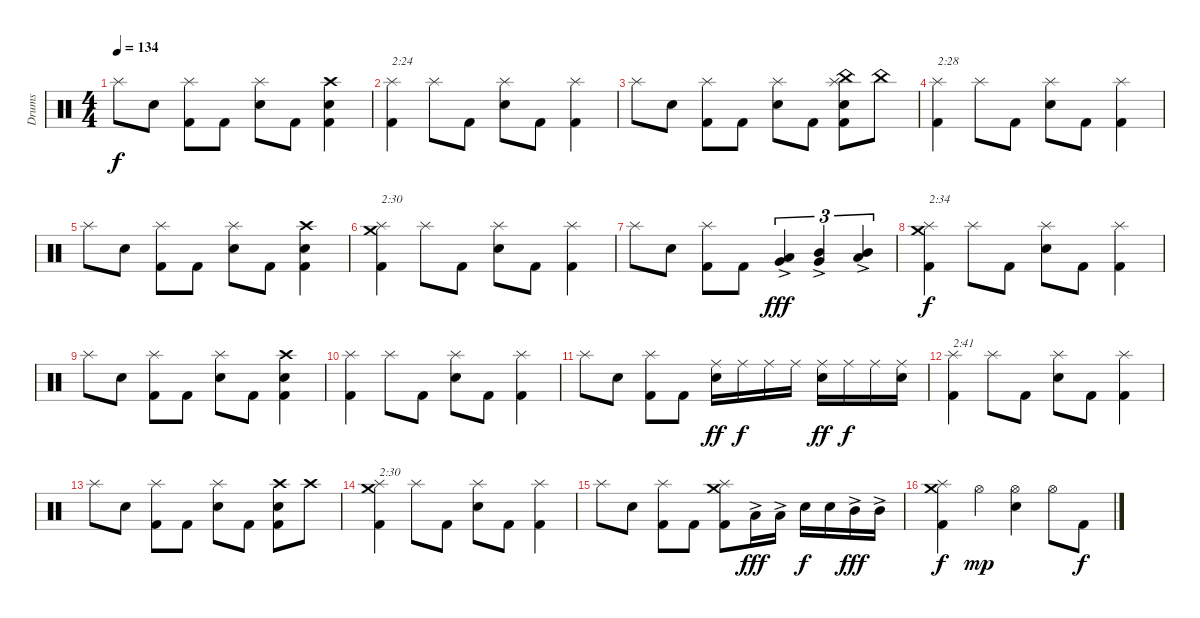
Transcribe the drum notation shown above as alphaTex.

\track ("Drums" "Drums") {instrument percussion}
\staff {score}
\articulation defaults
\ts (4 4)
\tempo 134
\clef neutral
\ks c "Splash (hit)".8{dy f} "Electric Snare (hit)".8
("Kick (hit) 2" "Splash (hit)").8 "Kick (hit) 2".8 ("Electric Snare (hit)" "Splash (hit)").8 "Kick (hit) 2".8 ("Kick (hit) 2" "Electric Snare (hit)" "Crash high (hit)").4 |
("Kick (hit) 2" "Splash (hit)").4{txt "2:24"} "Splash (hit)".8 "Kick (hit) 2".8 ("Electric Snare (hit)" "Splash (hit)").8 "Kick (hit) 2".8 ("Kick (hit) 2" "Splash (hit)").4 |
"Splash (hit)".8 "Electric Snare (hit)".8 ("Kick (hit) 2" "Splash (hit)").8 "Kick (hit) 2".8 ("Electric Snare (hit)" "Splash (hit)").8 "Kick (hit) 2".8 ("Kick (hit) 2" "Electric Snare (hit)" "Splash (hit)" "China (hit)").8 "China (hit)".8 |
("Kick (hit) 2" "Splash (hit)").4{txt "2:28"} "Splash (hit)".8 "Kick (hit) 2".8 ("Electric Snare (hit)" "Splash (hit)").8 "Kick (hit) 2".8 ("Kick (hit) 2" "Splash (hit)").4 |
"Splash (hit)".8 "Electric Snare (hit)".8 ("Kick (hit) 2" "Splash (hit)").8 "Kick (hit) 2".8 ("Electric Snare (hit)" "Splash (hit)").8 "Kick (hit) 2".8 ("Kick (hit) 2" "Electric Snare (hit)" "Crash high (hit)").4 |
("Kick (hit) 2" "Splash (hit)" "Crash medium (hit)").4{txt "2:30"} "Splash (hit)".8 "Kick (hit) 2".8 ("Electric Snare (hit)" "Splash (hit)").8 "Kick (hit) 2".8 ("Kick (hit) 2" "Splash (hit)").4 |
"Splash (hit)".8 "Electric Snare (hit)".8 ("Kick (hit) 2" "Splash (hit)").8 "Kick (hit) 2".8 ("Very Low Tom (hit)"{ac} "Low Tom (hit)"{ac}).4{tu (3 2) dy fff} ("Very Low Tom (hit)"{ac} "Mid Tom (hit)"{ac}).4{tu (3 2)} ("Mid Tom (hit)"{ac} "Low Tom (hit)"{ac}).4{tu (3 2)} |
("Kick (hit) 2" "Splash (hit)" "Crash medium (hit)").4{txt "2:34" dy f} "Splash (hit)".8 "Kick (hit) 2".8 ("Electric Snare (hit)" "Splash (hit)").8 "Kick (hit) 2".8 ("Kick (hit) 2" "Splash (hit)").4 |
"Splash (hit)".8 "Electric Snare (hit)".8 ("Kick (hit) 2" "Splash (hit)").8 "Kick (hit) 2".8 ("Electric Snare (hit)" "Splash (hit)").8 "Kick (hit) 2".8 ("Kick (hit) 2" "Electric Snare (hit)" "Crash high (hit)").4 |
("Kick (hit) 2" "Splash (hit)").4 "Splash (hit)".8 "Kick (hit) 2".8 ("Electric Snare (hit)" "Splash (hit)").8 "Kick (hit) 2".8 ("Kick (hit) 2" "Splash (hit)").4 |
"Splash (hit)".8 "Electric Snare (hit)".8 ("Kick (hit) 2" "Splash (hit)").8 "Kick (hit) 2".8 ("Electric Snare (hit)" "Ride (middle)").16{dy ff} "Ride (middle)".16{dy f} "Ride (middle)".16 "Ride (middle)".16 ("Electric Snare (hit)" "Ride (middle)").16{dy ff} "Ride (middle)".16{dy f} "Ride (middle)".16 ("Electric Snare (hit)" "Ride (middle)").16 |
("Kick (hit) 2" "Splash (hit)").4{txt "2:41"} "Splash (hit)".8 "Kick (hit) 2".8 ("Electric Snare (hit)" "Splash (hit)").8 "Kick (hit) 2".8 ("Kick (hit) 2" "Splash (hit)").4 |
"Splash (hit)".8 "Electric Snare (hit)".8 ("Kick (hit) 2" "Splash (hit)").8 "Kick (hit) 2".8 ("Electric Snare (hit)" "Splash (hit)").8 "Kick (hit) 2".8 ("Kick (hit) 2" "Electric Snare (hit)" "Crash high (hit)").8 "Crash high (hit)".8 |
("Kick (hit) 2" "Splash (hit)" "Crash medium (hit)").4{txt "2:30"} "Splash (hit)".8 "Kick (hit) 2".8 ("Electric Snare (hit)" "Splash (hit)").8 "Kick (hit) 2".8 ("Kick (hit) 2" "Splash (hit)").4 |
"Splash (hit)".8 "Electric Snare (hit)".8 ("Kick (hit) 2" "Splash (hit)").8 "Kick (hit) 2".8 ("Kick (hit) 2" "Splash (hit)" "Crash medium (hit)").8 "Low Tom (hit)"{ac}.16{dy fff} "Low Tom (hit)"{ac}.16 "Electric Snare (hit)".16{dy f} "Electric Snare (hit)".16 "Mid Tom (hit)"{ac}.16{dy fff} "Mid Tom (hit)"{ac}.16 |
("Kick (hit) 2" "Splash (hit)" "Crash medium (hit)").4{dy f} "Hi-Hat (open)".4{dy mp} ("Electric Snare (hit)" "Hi-Hat (open)").4 "Hi-Hat (open)".8 "Kick (hit) 2".8{dy f}
